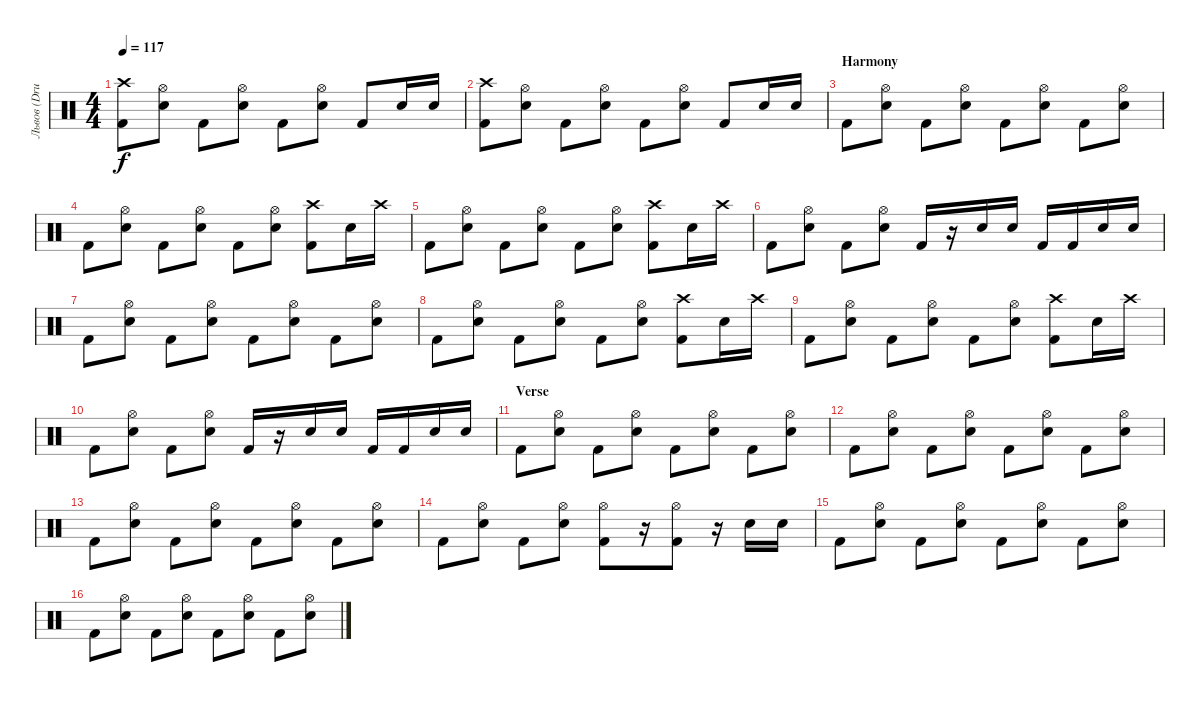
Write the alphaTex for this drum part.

\track ("Львов (Drums)" "Львов (Dru") {instrument percussion}
\staff {score}
\articulation defaults
\ts (4 4)
\tempo 117
\clef neutral
\ks c
("Kick (hit) 2" "Crash high (hit)").8{dy f} ("Electric Snare (hit)" "Hi-Hat (open)").8 "Kick (hit) 2".8 ("Electric Snare (hit)" "Hi-Hat (open)").8 "Kick (hit) 2".8 ("Electric Snare (hit)" "Hi-Hat (open)").8 "Kick (hit) 2".8 "Electric Snare (hit)".16 "Electric Snare (hit)".16 |
("Kick (hit) 2" "Crash high (hit)").8 ("Electric Snare (hit)" "Hi-Hat (open)").8 "Kick (hit) 2".8 ("Electric Snare (hit)" "Hi-Hat (open)").8 "Kick (hit) 2".8 ("Electric Snare (hit)" "Hi-Hat (open)").8 "Kick (hit) 2".8 "Electric Snare (hit)".16 "Electric Snare (hit)".16 |
\section ("" "Harmony")
"Kick (hit) 2".8 ("Electric Snare (hit)" "Hi-Hat (open)").8 "Kick (hit) 2".8 ("Electric Snare (hit)" "Hi-Hat (open)").8 "Kick (hit) 2".8 ("Electric Snare (hit)" "Hi-Hat (open)").8 "Kick (hit) 2".8 ("Electric Snare (hit)" "Hi-Hat (open)").8 |
"Kick (hit) 2".8 ("Electric Snare (hit)" "Hi-Hat (open)").8 "Kick (hit) 2".8 ("Electric Snare (hit)" "Hi-Hat (open)").8 "Kick (hit) 2".8 ("Electric Snare (hit)" "Hi-Hat (open)").8 ("Kick (hit) 2" "Crash high (hit)").8 "Electric Snare (hit)".16 "Crash high (hit)".16 |
"Kick (hit) 2".8 ("Electric Snare (hit)" "Hi-Hat (open)").8 "Kick (hit) 2".8 ("Electric Snare (hit)" "Hi-Hat (open)").8 "Kick (hit) 2".8 ("Electric Snare (hit)" "Hi-Hat (open)").8 ("Kick (hit) 2" "Crash high (hit)").8 "Electric Snare (hit)".16 "Crash high (hit)".16 |
"Kick (hit) 2".8 ("Electric Snare (hit)" "Hi-Hat (open)").8 "Kick (hit) 2".8 ("Electric Snare (hit)" "Hi-Hat (open)").8 "Kick (hit) 2".16 r.16 "Electric Snare (hit)".16 "Electric Snare (hit)".16 "Kick (hit) 2".16 "Kick (hit) 2".16 "Electric Snare (hit)".16 "Electric Snare (hit)".16 |
"Kick (hit) 2".8 ("Electric Snare (hit)" "Hi-Hat (open)").8 "Kick (hit) 2".8 ("Electric Snare (hit)" "Hi-Hat (open)").8 "Kick (hit) 2".8 ("Electric Snare (hit)" "Hi-Hat (open)").8 "Kick (hit) 2".8 ("Electric Snare (hit)" "Hi-Hat (open)").8 |
"Kick (hit) 2".8 ("Electric Snare (hit)" "Hi-Hat (open)").8 "Kick (hit) 2".8 ("Electric Snare (hit)" "Hi-Hat (open)").8 "Kick (hit) 2".8 ("Electric Snare (hit)" "Hi-Hat (open)").8 ("Kick (hit) 2" "Crash high (hit)").8 "Electric Snare (hit)".16 "Crash high (hit)".16 |
"Kick (hit) 2".8 ("Electric Snare (hit)" "Hi-Hat (open)").8 "Kick (hit) 2".8 ("Electric Snare (hit)" "Hi-Hat (open)").8 "Kick (hit) 2".8 ("Electric Snare (hit)" "Hi-Hat (open)").8 ("Kick (hit) 2" "Crash high (hit)").8 "Electric Snare (hit)".16 "Crash high (hit)".16 |
"Kick (hit) 2".8 ("Electric Snare (hit)" "Hi-Hat (open)").8 "Kick (hit) 2".8 ("Electric Snare (hit)" "Hi-Hat (open)").8 "Kick (hit) 2".16 r.16 "Electric Snare (hit)".16 "Electric Snare (hit)".16 "Kick (hit) 2".16 "Kick (hit) 2".16 "Electric Snare (hit)".16 "Electric Snare (hit)".16 |
\section ("" "Verse")
"Kick (hit) 2".8 ("Electric Snare (hit)" "Hi-Hat (open)").8 "Kick (hit) 2".8 ("Electric Snare (hit)" "Hi-Hat (open)").8 "Kick (hit) 2".8 ("Electric Snare (hit)" "Hi-Hat (open)").8 "Kick (hit) 2".8 ("Electric Snare (hit)" "Hi-Hat (open)").8 |
"Kick (hit) 2".8 ("Electric Snare (hit)" "Hi-Hat (open)").8 "Kick (hit) 2".8 ("Electric Snare (hit)" "Hi-Hat (open)").8 "Kick (hit) 2".8 ("Electric Snare (hit)" "Hi-Hat (open)").8 "Kick (hit) 2".8 ("Electric Snare (hit)" "Hi-Hat (open)").8 |
"Kick (hit) 2".8 ("Electric Snare (hit)" "Hi-Hat (open)").8 "Kick (hit) 2".8 ("Electric Snare (hit)" "Hi-Hat (open)").8 "Kick (hit) 2".8 ("Electric Snare (hit)" "Hi-Hat (open)").8 "Kick (hit) 2".8 ("Electric Snare (hit)" "Hi-Hat (open)").8 |
"Kick (hit) 2".8 ("Electric Snare (hit)" "Hi-Hat (open)").8 "Kick (hit) 2".8 ("Electric Snare (hit)" "Hi-Hat (open)").8 ("Kick (hit) 2" "Hi-Hat (open)").8 r.16 ("Kick (hit) 2" "Hi-Hat (open)").8 r.16 "Electric Snare (hit)".16 "Electric Snare (hit)".16 |
"Kick (hit) 2".8 ("Electric Snare (hit)" "Hi-Hat (open)").8 "Kick (hit) 2".8 ("Electric Snare (hit)" "Hi-Hat (open)").8 "Kick (hit) 2".8 ("Electric Snare (hit)" "Hi-Hat (open)").8 "Kick (hit) 2".8 ("Electric Snare (hit)" "Hi-Hat (open)").8 |
"Kick (hit) 2".8 ("Electric Snare (hit)" "Hi-Hat (open)").8 "Kick (hit) 2".8 ("Electric Snare (hit)" "Hi-Hat (open)").8 "Kick (hit) 2".8 ("Electric Snare (hit)" "Hi-Hat (open)").8 "Kick (hit) 2".8 ("Electric Snare (hit)" "Hi-Hat (open)").8
